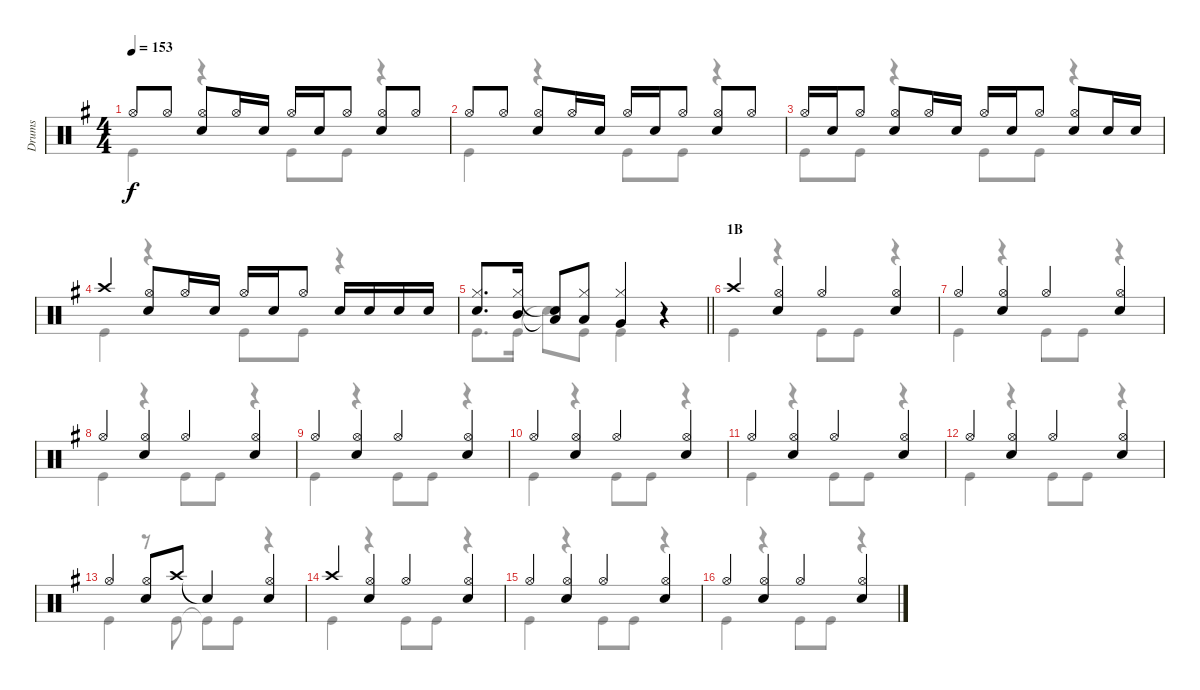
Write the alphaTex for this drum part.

\track ("Drums" "Drums") {instrument percussion}
\staff {score}
\articulation defaults
\voice
\ts (4 4)
\tempo 153
\clef neutral
\ks g "Hi-Hat (open)".8{dy f} "Hi-Hat (open)".8
("Hi-Hat (open)" "Snare (hit) 2").8 "Hi-Hat (open)".16 "Snare (hit) 2".16 "Hi-Hat (open)".16 "Snare (hit) 2".16 "Hi-Hat (open)".8 ("Hi-Hat (open)" "Snare (hit) 2").8 "Hi-Hat (open)".8 |
"Hi-Hat (open)".8 "Hi-Hat (open)".8 ("Hi-Hat (open)" "Snare (hit) 2").8 "Hi-Hat (open)".16 "Snare (hit) 2".16 "Hi-Hat (open)".16 "Snare (hit) 2".16 "Hi-Hat (open)".8 ("Hi-Hat (open)" "Snare (hit) 2").8 "Hi-Hat (open)".8 |
"Hi-Hat (open)".16 "Snare (hit) 2".16 "Hi-Hat (open)".8 ("Hi-Hat (open)" "Snare (hit) 2").8 "Hi-Hat (open)".16 "Snare (hit) 2".16 "Hi-Hat (open)".16 "Snare (hit) 2".16 "Hi-Hat (open)".8 ("Hi-Hat (open)" "Snare (hit) 2").8 "Snare (hit) 2".16 "Snare (hit) 2".16 |
"Crash high (hit)".4 ("Hi-Hat (open)" "Snare (hit) 2").8 "Hi-Hat (open)".16 "Snare (hit) 2".16 "Hi-Hat (open)".16 "Snare (hit) 2".16 "Hi-Hat (open)".8 "Snare (hit) 2".16 "Snare (hit) 2".16 "Snare (hit) 2".16 "Snare (hit) 2".16 |
\barLineRight lightlight
("Hi-Hat (closed)" "Snare (hit) 2").8{d} ("Hi-Hat (closed)" "Mid Tom (hit)").16 ("Snare (hit)"{t} "Low Tom (hit)"{t}).8 ("Hi-Hat (closed)" "Low Tom (hit)").8 ("Hi-Hat (closed)" "Very Low Tom (hit)").4 r.4 |
\section ("" "1B")
"Crash high (hit)".4 ("Hi-Hat (open)" "Snare (hit) 2").4 "Hi-Hat (open)".4 ("Hi-Hat (open)" "Snare (hit) 2").4 |
"Hi-Hat (open)".4 ("Hi-Hat (open)" "Snare (hit) 2").4 "Hi-Hat (open)".4 ("Hi-Hat (open)" "Snare (hit) 2").4 |
"Hi-Hat (open)".4 ("Hi-Hat (open)" "Snare (hit) 2").4 "Hi-Hat (open)".4 ("Hi-Hat (open)" "Snare (hit) 2").4 |
"Hi-Hat (open)".4 ("Hi-Hat (open)" "Snare (hit) 2").4 "Hi-Hat (open)".4 ("Hi-Hat (open)" "Snare (hit) 2").4 |
"Hi-Hat (open)".4 ("Hi-Hat (open)" "Snare (hit) 2").4 "Hi-Hat (open)".4 ("Hi-Hat (open)" "Snare (hit) 2").4 |
"Hi-Hat (open)".4 ("Hi-Hat (open)" "Snare (hit) 2").4 "Hi-Hat (open)".4 ("Hi-Hat (open)" "Snare (hit) 2").4 |
"Hi-Hat (open)".4 ("Hi-Hat (open)" "Snare (hit) 2").4 "Hi-Hat (open)".4 ("Hi-Hat (open)" "Snare (hit) 2").4 |
"Hi-Hat (open)".4 ("Hi-Hat (open)" "Snare (hit) 2").8 "Crash high (hit)".8 "Snare (hit)"{t}.4 ("Hi-Hat (open)" "Snare (hit) 2").4 |
"Crash high (hit)".4 ("Hi-Hat (open)" "Snare (hit) 2").4 "Hi-Hat (open)".4 ("Hi-Hat (open)" "Snare (hit) 2").4 |
"Hi-Hat (open)".4 ("Hi-Hat (open)" "Snare (hit) 2").4 "Hi-Hat (open)".4 ("Hi-Hat (open)" "Snare (hit) 2").4 |
"Hi-Hat (open)".4 ("Hi-Hat (open)" "Snare (hit) 2").4 "Hi-Hat (open)".4 ("Hi-Hat (open)" "Snare (hit) 2").4
\voice
\clef neutral
\ottava regular
\simile none
\ks g "Kick (hit)".4{dy f}
r.4 "Kick (hit)".8 "Kick (hit)".8 r.4 |
"Kick (hit)".4 r.4 "Kick (hit)".8 "Kick (hit)".8 r.4 |
"Kick (hit)".8 "Kick (hit)".8 r.4 "Kick (hit)".8 "Kick (hit)".8 r.4 |
"Kick (hit)".4 r.4 "Kick (hit)".8 "Kick (hit)".8 r.4 |
\barLineRight lightlight "Kick (hit)".8{d} "Kick (hit)".16 "Snare (hit)"{t}.8 "Kick (hit)".8 "Kick (hit)".4
r.4 |
"Kick (hit)".4 r.4 "Kick (hit)".8 "Kick (hit)".8 r.4 |
"Kick (hit)".4 r.4 "Kick (hit)".8 "Kick (hit)".8 r.4 |
"Kick (hit)".4 r.4 "Kick (hit)".8 "Kick (hit)".8 r.4 |
"Kick (hit)".4 r.4 "Kick (hit)".8 "Kick (hit)".8 r.4 |
"Kick (hit)".4 r.4 "Kick (hit)".8 "Kick (hit)".8 r.4 |
"Kick (hit)".4 r.4 "Kick (hit)".8 "Kick (hit)".8 r.4 |
"Kick (hit)".4 r.4 "Kick (hit)".8 "Kick (hit)".8 r.4 |
"Kick (hit)".4 r.8 "Kick (hit)".8 "Kick (hit)"{t}.8 "Kick (hit)".8 r.4 |
"Kick (hit)".4 r.4 "Kick (hit)".8 "Kick (hit)".8 r.4 |
"Kick (hit)".4 r.4 "Kick (hit)".8 "Kick (hit)".8 r.4 |
"Kick (hit)".4 r.4 "Kick (hit)".8 "Kick (hit)".8 r.4
